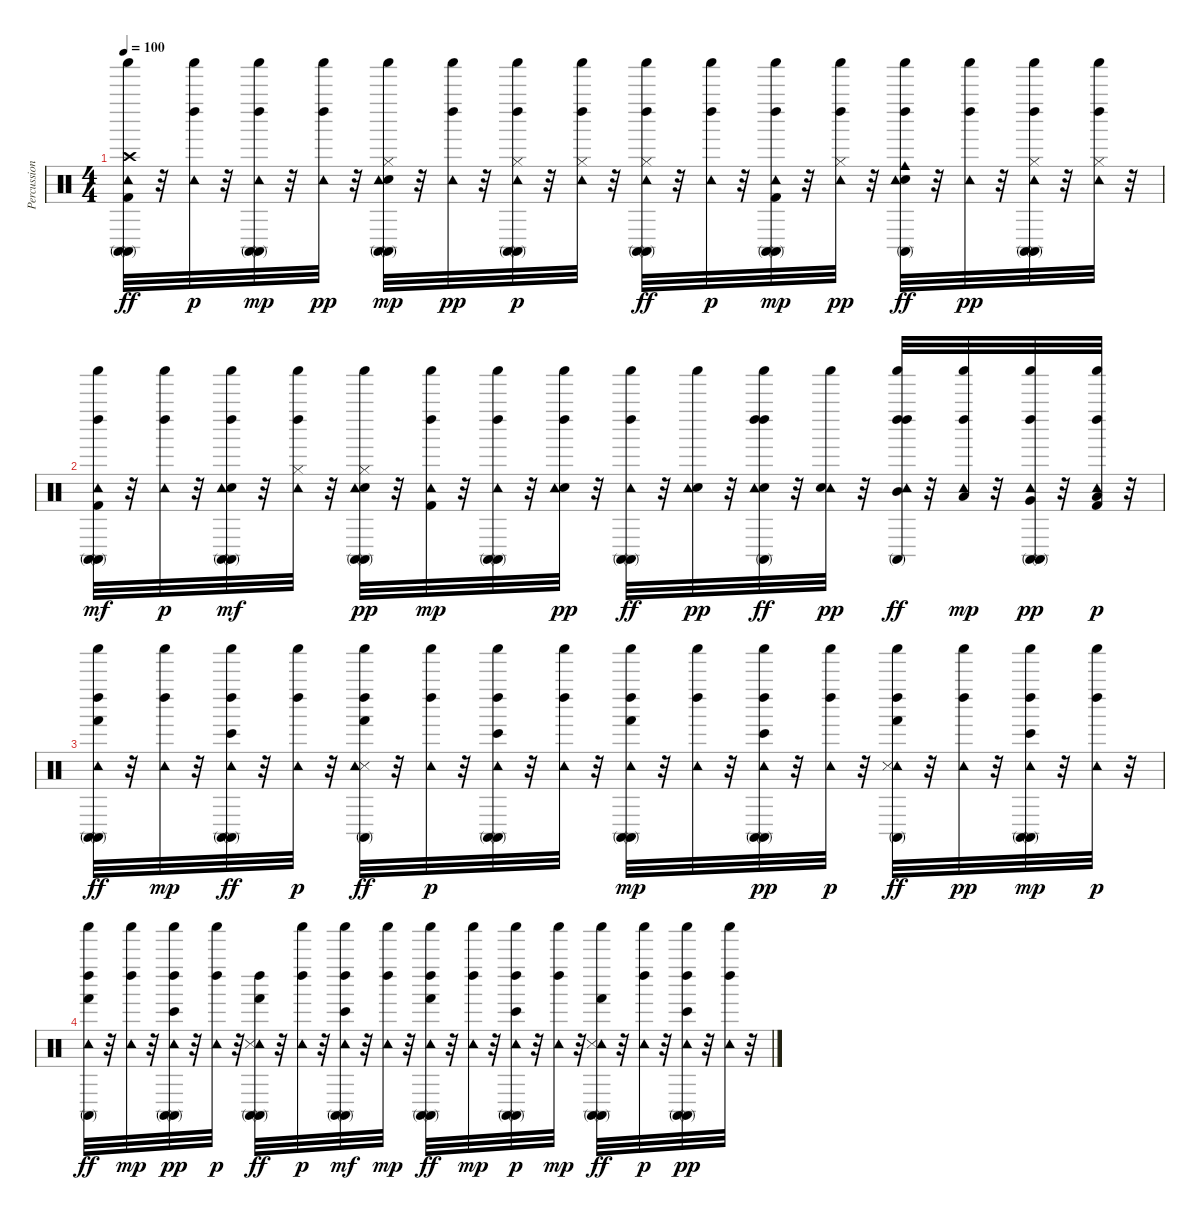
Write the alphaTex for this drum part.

\track ("Percussions" "Percussion") {instrument percussion}
\staff {score}
\articulation defaults
\ts (4 4)
\tempo 100
\clef neutral
\ks c
("Conga high (mute)" "Crash high (hit)" "Kick (hit) 2" "Conga high (mute)" "Tambourine (hit)" "Shaker (hit)").32{dy ff} r.32 ("Tambourine (hit)" "Left Maraca (hit)" "Shaker (hit)").32{dy p} r.32 ("Conga high (mute)" "Left Maraca (hit)" "Shaker (hit)" "Tambourine (hit)" "Conga high (mute)").32{dy mp} r.32 ("Tambourine (hit)" "Left Maraca (hit)" "Shaker (hit)").32{dy pp} r.32 ("Hi-Hat (closed)" "Conga high (mute)" "Electric Snare (hit)" "Tambourine (hit)" "Shaker (hit)" "Conga high (mute)").32{dy mp} r.32 ("Shaker (hit)" "Left Maraca (hit)" "Tambourine (hit)").32{dy pp} r.32 ("Left Maraca (hit)" "Conga high (mute)" "Tambourine (hit)" "Shaker (hit)" "Hi-Hat (closed)" "Conga high (mute)").32{dy p} r.32 ("Left Maraca (hit)" "Shaker (hit)" "Tambourine (hit)" "Hi-Hat (closed)").32 r.32 ("Conga high (mute)" "Left Maraca (hit)" "Conga high (mute)" "Tambourine (hit)" "Shaker (hit)" "Hi-Hat (closed)").32{dy ff} r.32 ("Left Maraca (hit)" "Tambourine (hit)" "Shaker (hit)").32{dy p} r.32 ("Conga high (mute)" "Left Maraca (hit)" "Shaker (hit)" "Tambourine (hit)" "Conga high (mute)" "Kick (hit) 2").32{dy mp} r.32 ("Hi-Hat (closed)" "Left Maraca (hit)" "Tambourine (hit)" "Shaker (hit)").32{dy pp} r.32 ("Conga high (mute)" "Electric Snare (hit)" "Cowbell medium (hit)" "Tambourine (hit)" "Left Maraca (hit)" "Shaker (hit)").32{dy ff} r.32 ("Shaker (hit)" "Left Maraca (hit)" "Tambourine (hit)").32{dy pp} r.32 ("Conga high (mute)" "Conga high (mute)" "Left Maraca (hit)" "Shaker (hit)" "Tambourine (hit)" "Hi-Hat (closed)").32 r.32 ("Tambourine (hit)" "Shaker (hit)" "Hi-Hat (closed)" "Left Maraca (hit)").32 r.32 |
("Conga high (mute)" "Shaker (hit)" "Tambourine (hit)" "Conga high (mute)" "Left Maraca (hit)" "Kick (hit) 2").32{dy mf} r.32 ("Tambourine (hit)" "Shaker (hit)" "Left Maraca (hit)").32{dy p} r.32 ("Conga high (mute)" "Electric Snare (hit)" "Left Maraca (hit)" "Shaker (hit)" "Conga high (mute)" "Tambourine (hit)").32{dy mf} r.32 ("Hi-Hat (closed)" "Tambourine (hit)" "Shaker (hit)" "Left Maraca (hit)").32 r.32 ("Conga high (mute)" "Electric Snare (hit)" "Hi-Hat (closed)" "Conga high (mute)" "Tambourine (hit)" "Shaker (hit)").32{dy pp} r.32 ("Shaker (hit)" "Kick (hit) 2" "Tambourine (hit)" "Left Maraca (hit)").32{dy mp} r.32 ("Conga high (mute)" "Left Maraca (hit)" "Conga high (mute)" "Shaker (hit)" "Tambourine (hit)").32 r.32 ("Electric Snare (hit)" "Tambourine (hit)" "Shaker (hit)" "Left Maraca (hit)").32{dy pp} r.32 ("Conga high (mute)" "Conga high (mute)" "Shaker (hit)" "Tambourine (hit)" "Left Maraca (hit)").32{dy ff} r.32 ("Electric Snare (hit)" "Shaker (hit)" "Tambourine (hit)").32{dy pp} r.32 ("Left Maraca (hit)" "Electric Snare (hit)" "Tambourine (hit)" "Left Maraca (hit)" "Conga high (mute)" "Shaker (hit)").32{dy ff} r.32 ("Tambourine (hit)" "Shaker (hit)" "Electric Snare (hit)").32{dy pp} r.32 ("Left Maraca (hit)" "Shaker (hit)" "Mid Tom (hit)" "Tambourine (hit)" "Conga high (mute)" "Left Maraca (hit)").32{dy ff} r.32 ("Shaker (hit)" "Tambourine (hit)" "Low Tom (hit)" "Left Maraca (hit)").32{dy mp} r.32 ("Conga high (mute)" "Shaker (hit)" "Very Low Tom (hit)" "Tambourine (hit)" "Conga high (mute)" "Left Maraca (hit)").32{dy pp} r.32 ("Kick (hit) 2" "Low Floor Tom (hit)" "Tambourine (hit)" "Shaker (hit)" "Left Maraca (hit)").32{dy p} r.32 |
("Conga high (mute)" "Conga high (mute)" "Shaker (hit)" "Tambourine (hit)" "Hand (hit)" "Left Maraca (hit)").32{dy ff} r.32 ("Tambourine (hit)" "Shaker (hit)" "Left Maraca (hit)").32{dy mp} r.32 ("Conga high (mute)" "Conga high (mute)" "Tambourine (hit)" "Shaker (hit)" "Left Maraca (hit)" "Bongo High (hit)").32{dy ff} r.32 ("Tambourine (hit)" "Shaker (hit)" "Left Maraca (hit)").32{dy p} r.32 ("Hand (hit)" "Snare (side stick) 3" "Conga high (mute)" "Shaker (hit)" "Tambourine (hit)" "Left Maraca (hit)").32{dy ff} r.32 ("Tambourine (hit)" "Shaker (hit)" "Left Maraca (hit)").32{dy p} r.32 ("Conga high (mute)" "Tambourine (hit)" "Left Maraca (hit)" "Shaker (hit)" "Bongo High (hit)" "Conga high (mute)").32 r.32 ("Tambourine (hit)" "Left Maraca (hit)" "Shaker (hit)").32 r.32 ("Tambourine (hit)" "Hand (hit)" "Shaker (hit)" "Conga high (mute)" "Left Maraca (hit)" "Conga high (mute)").32{dy mp} r.32 ("Tambourine (hit)" "Shaker (hit)" "Left Maraca (hit)").32 r.32 ("Left Maraca (hit)" "Shaker (hit)" "Tambourine (hit)" "Bongo High (hit)" "Conga high (mute)" "Conga high (mute)").32{dy pp} r.32 ("Tambourine (hit)" "Left Maraca (hit)" "Shaker (hit)").32{dy p} r.32 ("Conga high (mute)" "Tambourine (hit)" "Snare (side stick) 3" "Shaker (hit)" "Hand (hit)" "Left Maraca (hit)").32{dy ff} r.32 ("Tambourine (hit)" "Left Maraca (hit)" "Shaker (hit)").32{dy pp} r.32 ("Conga high (mute)" "Left Maraca (hit)" "Bongo High (hit)" "Conga high (mute)" "Tambourine (hit)" "Shaker (hit)").32{dy mp} r.32 ("Left Maraca (hit)" "Tambourine (hit)" "Shaker (hit)").32{dy p} r.32 |
("Conga high (mute)" "Tambourine (hit)" "Hand (hit)" "Left Maraca (hit)" "Shaker (hit)").32{dy ff} r.32 ("Shaker (hit)" "Tambourine (hit)" "Left Maraca (hit)").32{dy mp} r.32 ("Conga high (mute)" "Bongo High (hit)" "Tambourine (hit)" "Conga high (mute)" "Shaker (hit)" "Left Maraca (hit)").32{dy pp} r.32 ("Tambourine (hit)" "Left Maraca (hit)" "Shaker (hit)").32{dy p} r.32 ("Conga high (mute)" "Tambourine (hit)" "Hand (hit)" "Conga high (mute)" "Snare (side stick) 3" "Left Maraca (hit)").32{dy ff} r.32 ("Tambourine (hit)" "Left Maraca (hit)" "Shaker (hit)").32{dy p} r.32 ("Conga high (mute)" "Tambourine (hit)" "Conga high (mute)" "Left Maraca (hit)" "Bongo High (hit)" "Shaker (hit)").32{dy mf} r.32 ("Tambourine (hit)" "Left Maraca (hit)" "Shaker (hit)").32{dy mp} r.32 ("Conga high (mute)" "Conga high (mute)" "Tambourine (hit)" "Hand (hit)" "Shaker (hit)" "Left Maraca (hit)").32{dy ff} r.32 ("Tambourine (hit)" "Shaker (hit)" "Left Maraca (hit)").32{dy mp} r.32 ("Conga high (mute)" "Tambourine (hit)" "Conga high (mute)" "Bongo High (hit)" "Shaker (hit)" "Left Maraca (hit)").32{dy p} r.32 ("Tambourine (hit)" "Shaker (hit)" "Left Maraca (hit)").32{dy mp} r.32 ("Conga high (mute)" "Tambourine (hit)" "Hand (hit)" "Snare (side stick) 3" "Conga high (mute)" "Shaker (hit)").32{dy ff} r.32 ("Tambourine (hit)" "Left Maraca (hit)" "Shaker (hit)").32{dy p} r.32 ("Conga high (mute)" "Conga high (mute)" "Bongo High (hit)" "Tambourine (hit)" "Shaker (hit)" "Left Maraca (hit)").32{dy pp} r.32 ("Shaker (hit)" "Tambourine (hit)" "Left Maraca (hit)").32 r.32
